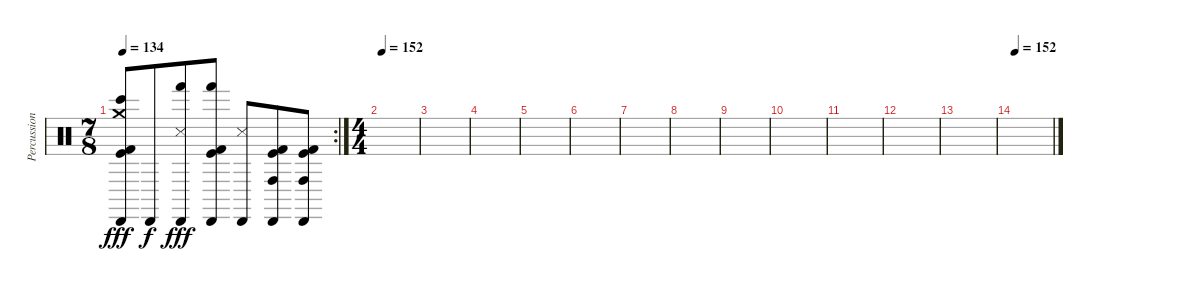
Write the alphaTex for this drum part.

\track ("Percussion" "Percussion") {instrument percussion}
\staff {score}
\articulation defaults
\rc 2
\ts (7 8)
\tempo 134
\clef neutral
\ks c
("Cabasa (hit)" "Crash medium (hit)" "Bongo High (hit)" "Kick (hit)" "Kick (hit) 2").8{dy fff} "Cabasa (hit)".8{dy f} ("Cabasa (hit)" "Hand (hit)" "Snare (side stick) 3").8{dy fff} ("Cabasa (hit)" "Hand (hit)" "Kick (hit)" "Kick (hit) 2").8 ("Cabasa (hit)" "Snare (side stick) 3").8 ("Cabasa (hit)" "Conga high (hit)" "Kick (hit)" "Kick (hit) 2").8 ("Cabasa (hit)" "Conga high (hit)" "Kick (hit)" "Kick (hit) 2").8 |
\ts (4 4)
\tempo 152
|
|
|
|
|
|
|
|
|
|
|
|
\tempo 152
